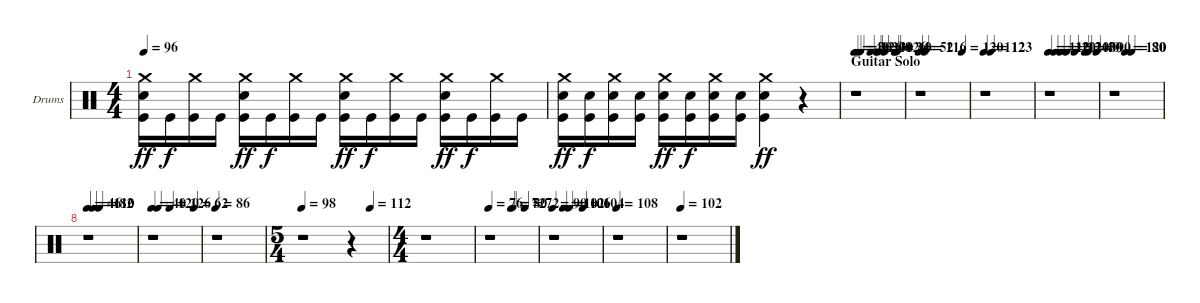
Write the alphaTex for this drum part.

\bracketExtendMode nobrackets
\firstSystemTrackNameOrientation horizontal
\otherSystemsTrackNameOrientation horizontal
\defaultBarNumberDisplay FirstOfSystem
\track ("Drumkit" "Drums") {instrument percussion}
\staff {score}
\articulation defaults
\ts (4 4)
\tempo 96
\clef neutral
\ks c
("Crash medium (hit)" "Snare (hit) 2" "Kick (hit)").16{dy ff} "Kick (hit)".16{dy f} ("Crash medium (hit)" "Kick (hit)").16 "Kick (hit)".16 ("Crash medium (hit)" "Snare (hit) 2" "Kick (hit)").16{dy ff} "Kick (hit)".16{dy f} ("Crash medium (hit)" "Kick (hit)").16 "Kick (hit)".16 ("Crash medium (hit)" "Snare (hit) 2" "Kick (hit)").16{dy ff} "Kick (hit)".16{dy f} ("Crash medium (hit)" "Kick (hit)").16 "Kick (hit)".16 ("Crash medium (hit)" "Snare (hit) 2" "Kick (hit)").16{dy ff} "Kick (hit)".16{dy f} ("Crash medium (hit)" "Kick (hit)").16 "Kick (hit)".16 |
("Crash medium (hit)" "Snare (hit) 2" "Kick (hit)").16{dy ff} ("Snare (hit) 2" "Kick (hit)").16{dy f} ("Crash medium (hit)" "Snare (hit) 2" "Kick (hit)").16 ("Snare (hit) 2" "Kick (hit)").16 ("Crash medium (hit)" "Snare (hit) 2" "Kick (hit)").16{dy ff} ("Snare (hit) 2" "Kick (hit)").16{dy f} ("Crash medium (hit)" "Snare (hit) 2" "Kick (hit)").16 ("Snare (hit) 2" "Kick (hit)").16 ("Crash medium (hit)" "Snare (hit) 2" "Kick (hit)").4{dy ff} r.4 |
\section ("" "Guitar Solo")
\tempo 40
\tempo (30 0.0625)
\tempo (126 0.125)
\tempo (30 0.333333)
\tempo (40 0.46875)
\tempo (30 0.5)
\tempo (126 0.625)
\tempo (34 0.833333)
\tempo (40 0.875)
r.1 |
\tempo 52
\tempo (116 0.125)
\tempo (120 0.875)
r.1 |
\tempo 112
\tempo (123 0.14375)
r.1 |
\tempo 112
\tempo (120 0.125)
\tempo (112 0.25)
\tempo (124 0.375)
\tempo (100 0.541667)
\tempo (40 0.75)
\tempo (30 0.8125)
\tempo (90 0.984375)
r.1 |
\tempo (120 0.25)
\tempo (80 0.375)
r.1 |
\tempo 46
\tempo (110 0.125)
\tempo (82 0.25)
r.1 |
\tempo 40
\tempo (120 0.125)
\tempo (126 0.375)
\tempo (62 0.875)
r.1 |
\tempo 86
r.1 |
\ts (5 4)
\tempo 98
\tempo (112 0.8)
r.1 r.4 |
\ts (4 4)
r.1 |
\tempo 76
\tempo (72 0.46875)
\tempo (80 0.5)
\tempo (72 0.75)
r.1 |
\tempo 90
\tempo (102 0.21875)
\tempo (106 0.34375)
\tempo (104 0.625)
r.1 |
\tempo 108
r.1 |
\tempo 102
r.1
